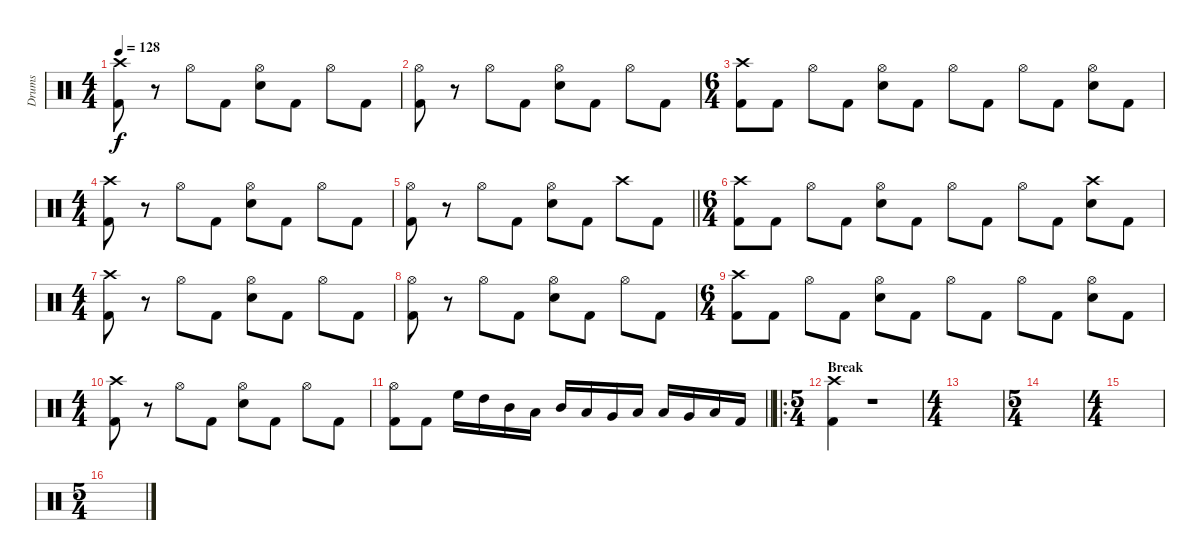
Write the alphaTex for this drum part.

\track ("Drums" "Drums") {instrument percussion}
\staff {score}
\articulation defaults
\ts (4 4)
\tempo 128
\clef neutral
\ks c
("Crash high (hit)" "Kick (hit) 2").8{dy f} r.8 "Hi-Hat (open)".8 "Kick (hit) 2".8 ("Hi-Hat (open)" "Electric Snare (hit)").8 "Kick (hit) 2".8 "Hi-Hat (open)".8 "Kick (hit) 2".8 |
("Hi-Hat (open)" "Kick (hit) 2").8 r.8 "Hi-Hat (open)".8 "Kick (hit) 2".8 ("Hi-Hat (open)" "Electric Snare (hit)").8 "Kick (hit) 2".8 "Hi-Hat (open)".8 "Kick (hit) 2".8 |
\ts (6 4)
("Crash high (hit)" "Kick (hit) 2").8 "Kick (hit) 2".8 "Hi-Hat (open)".8 "Kick (hit) 2".8 ("Hi-Hat (open)" "Electric Snare (hit)").8 "Kick (hit) 2".8 "Hi-Hat (open)".8 "Kick (hit) 2".8 "Hi-Hat (open)".8 "Kick (hit) 2".8 ("Hi-Hat (open)" "Electric Snare (hit)").8 "Kick (hit) 2".8 |
\ts (4 4)
("Crash high (hit)" "Kick (hit) 2").8 r.8 "Hi-Hat (open)".8 "Kick (hit) 2".8 ("Hi-Hat (open)" "Electric Snare (hit)").8 "Kick (hit) 2".8 "Hi-Hat (open)".8 "Kick (hit) 2".8 |
\barLineRight lightlight
("Hi-Hat (open)" "Kick (hit) 2").8 r.8 "Hi-Hat (open)".8 "Kick (hit) 2".8 ("Hi-Hat (open)" "Electric Snare (hit)").8 "Kick (hit) 2".8 "Crash high (hit)".8 "Kick (hit) 2".8 |
\ts (6 4)
("Crash high (hit)" "Kick (hit) 2").8 "Kick (hit) 2".8 "Hi-Hat (open)".8 "Kick (hit) 2".8 ("Hi-Hat (open)" "Electric Snare (hit)").8 "Kick (hit) 2".8 "Hi-Hat (open)".8 "Kick (hit) 2".8 "Hi-Hat (open)".8 "Kick (hit) 2".8 ("Crash high (hit)" "Electric Snare (hit)").8 "Kick (hit) 2".8 |
\ts (4 4)
("Crash high (hit)" "Kick (hit) 2").8 r.8 "Hi-Hat (open)".8 "Kick (hit) 2".8 ("Hi-Hat (open)" "Electric Snare (hit)").8 "Kick (hit) 2".8 "Hi-Hat (open)".8 "Kick (hit) 2".8 |
("Hi-Hat (open)" "Kick (hit) 2").8 r.8 "Hi-Hat (open)".8 "Kick (hit) 2".8 ("Hi-Hat (open)" "Electric Snare (hit)").8 "Kick (hit) 2".8 "Hi-Hat (open)".8 "Kick (hit) 2".8 |
\ts (6 4)
("Crash high (hit)" "Kick (hit) 2").8 "Kick (hit) 2".8 "Hi-Hat (open)".8 "Kick (hit) 2".8 ("Hi-Hat (open)" "Electric Snare (hit)").8 "Kick (hit) 2".8 "Hi-Hat (open)".8 "Kick (hit) 2".8 "Hi-Hat (open)".8 "Kick (hit) 2".8 ("Hi-Hat (open)" "Electric Snare (hit)").8 "Kick (hit) 2".8 |
\ts (4 4)
("Crash high (hit)" "Kick (hit) 2").8 r.8 "Hi-Hat (open)".8 "Kick (hit) 2".8 ("Hi-Hat (open)" "Electric Snare (hit)").8 "Kick (hit) 2".8 "Hi-Hat (open)".8 "Kick (hit) 2".8 |
\barLineRight lightlight
("Hi-Hat (open)" "Kick (hit) 2").8 "Kick (hit) 2".8 "High Floor Tom (hit)".16 "High Tom (hit)".16 "Mid Tom (hit)".16 "Low Tom (hit)".16 "Mid Tom (hit)".16 "Low Tom (hit)".16 "Very Low Tom (hit)".16 "Low Floor Tom (hit)".16 "Low Tom (hit)".16 "Very Low Tom (hit)".16 "Low Floor Tom (hit)".16 "Kick (hit) 2".16 |
\ro
\ts (5 4)
\section ("" "Break")
("Crash high (hit)" "Kick (hit) 2").4 r.1 |
\ts (4 4)
|
\ts (5 4)
|
\ts (4 4)
|
\ts (5 4)
